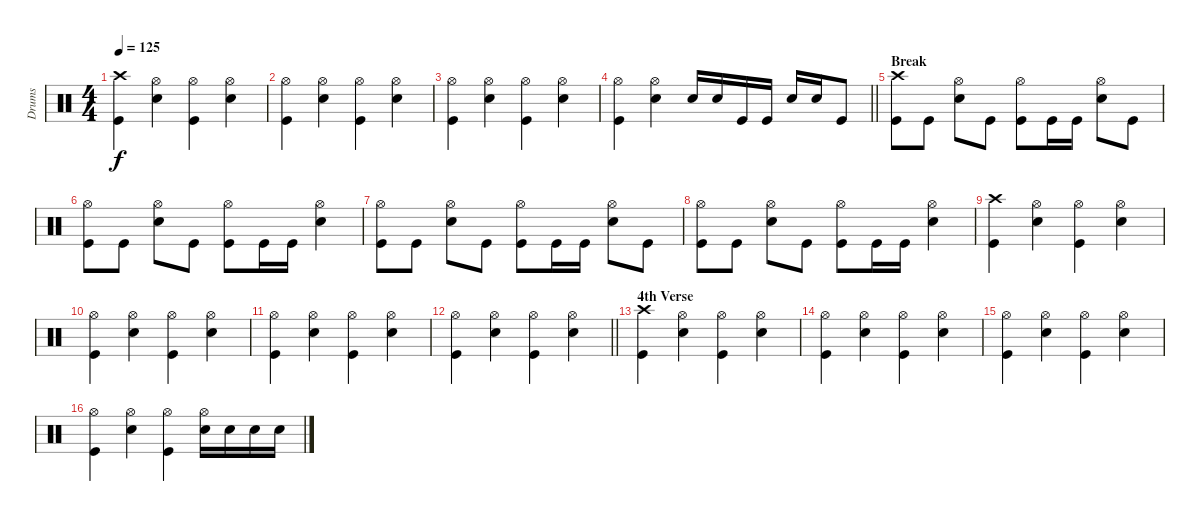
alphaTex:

\track ("Drums" "Drums") {instrument percussion}
\staff {score}
\articulation defaults
\ts (4 4)
\tempo 125
\clef neutral
\ks c
("Crash high (hit)" "Kick (hit)").4{dy f} ("Hi-Hat (open)" "Electric Snare (hit)").4 ("Hi-Hat (open)" "Kick (hit)").4 ("Hi-Hat (open)" "Electric Snare (hit)").4 |
("Hi-Hat (open)" "Kick (hit)").4 ("Hi-Hat (open)" "Electric Snare (hit)").4 ("Hi-Hat (open)" "Kick (hit)").4 ("Hi-Hat (open)" "Electric Snare (hit)").4 |
("Hi-Hat (open)" "Kick (hit)").4 ("Hi-Hat (open)" "Electric Snare (hit)").4 ("Hi-Hat (open)" "Kick (hit)").4 ("Hi-Hat (open)" "Electric Snare (hit)").4 |
\barLineRight lightlight
("Hi-Hat (open)" "Kick (hit)").4 ("Hi-Hat (open)" "Electric Snare (hit)").4 "Electric Snare (hit)".16 "Electric Snare (hit)".16 "Kick (hit)".16 "Kick (hit)".16 "Electric Snare (hit)".16 "Electric Snare (hit)".16 "Kick (hit)".8 |
\section ("" "Break")
("Crash high (hit)" "Kick (hit)").8 "Kick (hit)".8 ("Hi-Hat (open)" "Electric Snare (hit)").8 "Kick (hit)".8 ("Hi-Hat (open)" "Kick (hit)").8 "Kick (hit)".16 "Kick (hit)".16 ("Hi-Hat (open)" "Electric Snare (hit)").8 "Kick (hit)".8 |
("Hi-Hat (open)" "Kick (hit)").8 "Kick (hit)".8 ("Hi-Hat (open)" "Electric Snare (hit)").8 "Kick (hit)".8 ("Hi-Hat (open)" "Kick (hit)").8 "Kick (hit)".16 "Kick (hit)".16 ("Hi-Hat (open)" "Electric Snare (hit)").4 |
("Hi-Hat (open)" "Kick (hit)").8 "Kick (hit)".8 ("Hi-Hat (open)" "Electric Snare (hit)").8 "Kick (hit)".8 ("Hi-Hat (open)" "Kick (hit)").8 "Kick (hit)".16 "Kick (hit)".16 ("Hi-Hat (open)" "Electric Snare (hit)").8 "Kick (hit)".8 |
("Hi-Hat (open)" "Kick (hit)").8 "Kick (hit)".8 ("Hi-Hat (open)" "Electric Snare (hit)").8 "Kick (hit)".8 ("Hi-Hat (open)" "Kick (hit)").8 "Kick (hit)".16 "Kick (hit)".16 ("Hi-Hat (open)" "Electric Snare (hit)").4 |
("Crash high (hit)" "Kick (hit)").4 ("Hi-Hat (open)" "Electric Snare (hit)").4 ("Hi-Hat (open)" "Kick (hit)").4 ("Hi-Hat (open)" "Electric Snare (hit)").4 |
("Hi-Hat (open)" "Kick (hit)").4 ("Hi-Hat (open)" "Electric Snare (hit)").4 ("Hi-Hat (open)" "Kick (hit)").4 ("Hi-Hat (open)" "Electric Snare (hit)").4 |
("Hi-Hat (open)" "Kick (hit)").4 ("Hi-Hat (open)" "Electric Snare (hit)").4 ("Hi-Hat (open)" "Kick (hit)").4 ("Hi-Hat (open)" "Electric Snare (hit)").4 |
\barLineRight lightlight
("Hi-Hat (open)" "Kick (hit)").4 ("Hi-Hat (open)" "Electric Snare (hit)").4 ("Hi-Hat (open)" "Kick (hit)").4 ("Hi-Hat (open)" "Electric Snare (hit)").4 |
\section ("" "4th Verse")
("Crash high (hit)" "Kick (hit)").4 ("Hi-Hat (open)" "Electric Snare (hit)").4 ("Hi-Hat (open)" "Kick (hit)").4 ("Hi-Hat (open)" "Electric Snare (hit)").4 |
("Hi-Hat (open)" "Kick (hit)").4 ("Hi-Hat (open)" "Electric Snare (hit)").4 ("Hi-Hat (open)" "Kick (hit)").4 ("Hi-Hat (open)" "Electric Snare (hit)").4 |
("Hi-Hat (open)" "Kick (hit)").4 ("Hi-Hat (open)" "Electric Snare (hit)").4 ("Hi-Hat (open)" "Kick (hit)").4 ("Hi-Hat (open)" "Electric Snare (hit)").4 |
("Hi-Hat (open)" "Kick (hit)").4 ("Hi-Hat (open)" "Electric Snare (hit)").4 ("Hi-Hat (open)" "Kick (hit)").4 ("Hi-Hat (open)" "Electric Snare (hit)").16 "Electric Snare (hit)".16 "Electric Snare (hit)".16 "Electric Snare (hit)".16
